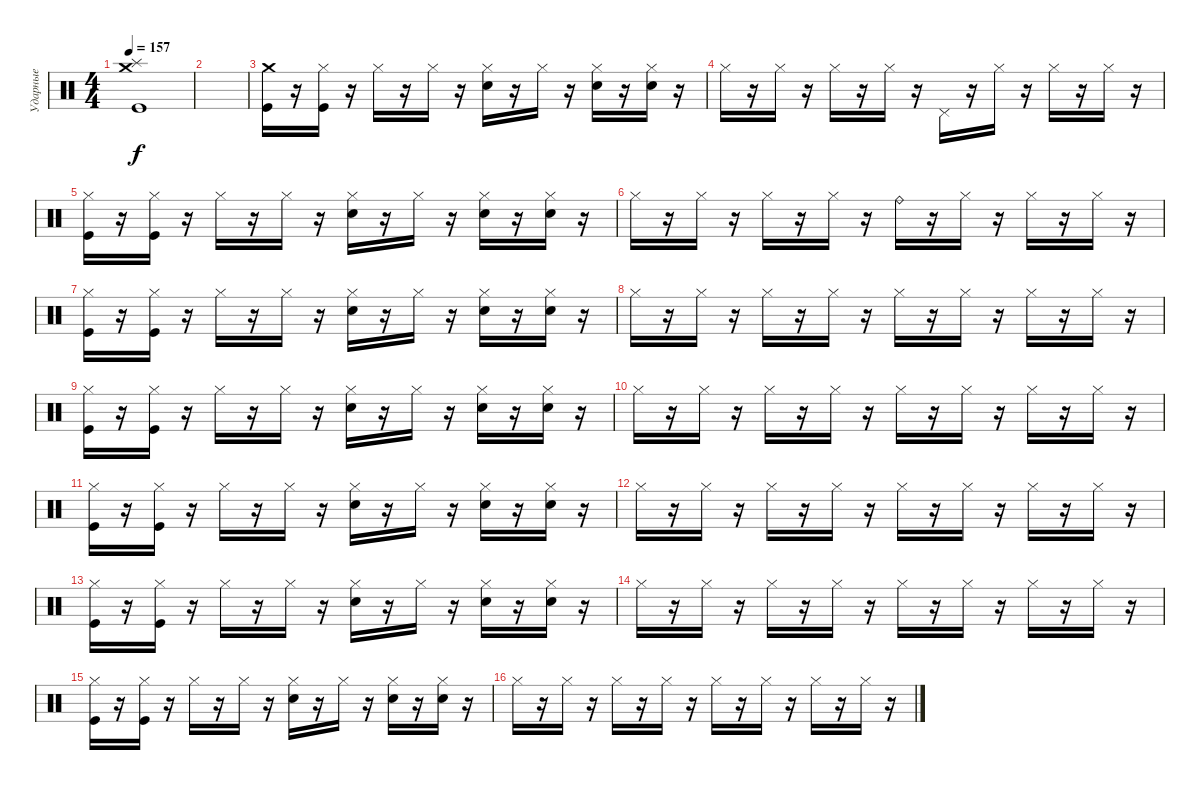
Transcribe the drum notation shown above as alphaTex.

\track ("Ударные" "Ударные") {instrument percussion}
\staff {score}
\articulation defaults
\ts (4 4)
\tempo 157
\clef neutral
\ks c
("Splash (hit)" "Crash medium (hit)" "Kick (hit)").1{dy f} |
|
("Crash medium (hit)" "Kick (hit)").16 r.16 ("Hi-Hat (closed)" "Kick (hit)").16 r.16 "Hi-Hat (closed)".16 r.16 "Hi-Hat (closed)".16 r.16 ("Hi-Hat (closed)" "Electric Snare (hit)").16 r.16 "Hi-Hat (closed)".16 r.16 ("Hi-Hat (closed)" "Electric Snare (hit)").16 r.16 ("Hi-Hat (closed)" "Electric Snare (hit)").16 r.16 |
"Hi-Hat (closed)".16 r.16 "Hi-Hat (closed)".16 r.16 "Hi-Hat (closed)".16 r.16 "Hi-Hat (closed)".16 r.16 "Pedal Hi-Hat (hit)".16 r.16 "Hi-Hat (closed)".16 r.16 "Hi-Hat (closed)".16 r.16 "Hi-Hat (closed)".16 r.16 |
("Hi-Hat (closed)" "Kick (hit)").16 r.16 ("Hi-Hat (closed)" "Kick (hit)").16 r.16 "Hi-Hat (closed)".16 r.16 "Hi-Hat (closed)".16 r.16 ("Hi-Hat (closed)" "Electric Snare (hit)").16 r.16 "Hi-Hat (closed)".16 r.16 ("Hi-Hat (closed)" "Electric Snare (hit)").16 r.16 ("Hi-Hat (closed)" "Electric Snare (hit)").16 r.16 |
"Hi-Hat (closed)".16 r.16 "Hi-Hat (closed)".16 r.16 "Hi-Hat (closed)".16 r.16 "Hi-Hat (closed)".16 r.16 "Ride (bell)".16 r.16 "Hi-Hat (closed)".16 r.16 "Hi-Hat (closed)".16 r.16 "Hi-Hat (closed)".16 r.16 |
("Hi-Hat (closed)" "Kick (hit)").16 r.16 ("Hi-Hat (closed)" "Kick (hit)").16 r.16 "Hi-Hat (closed)".16 r.16 "Hi-Hat (closed)".16 r.16 ("Hi-Hat (closed)" "Electric Snare (hit)").16 r.16 "Hi-Hat (closed)".16 r.16 ("Hi-Hat (closed)" "Electric Snare (hit)").16 r.16 ("Hi-Hat (closed)" "Electric Snare (hit)").16 r.16 |
"Hi-Hat (closed)".16 r.16 "Hi-Hat (closed)".16 r.16 "Hi-Hat (closed)".16 r.16 "Hi-Hat (closed)".16 r.16 "Hi-Hat (closed)".16 r.16 "Hi-Hat (closed)".16 r.16 "Hi-Hat (closed)".16 r.16 "Hi-Hat (closed)".16 r.16 |
("Hi-Hat (closed)" "Kick (hit)").16 r.16 ("Hi-Hat (closed)" "Kick (hit)").16 r.16 "Hi-Hat (closed)".16 r.16 "Hi-Hat (closed)".16 r.16 ("Hi-Hat (closed)" "Electric Snare (hit)").16 r.16 "Hi-Hat (closed)".16 r.16 ("Hi-Hat (closed)" "Electric Snare (hit)").16 r.16 ("Hi-Hat (closed)" "Electric Snare (hit)").16 r.16 |
"Hi-Hat (closed)".16 r.16 "Hi-Hat (closed)".16 r.16 "Hi-Hat (closed)".16 r.16 "Hi-Hat (closed)".16 r.16 "Hi-Hat (closed)".16 r.16 "Hi-Hat (closed)".16 r.16 "Hi-Hat (closed)".16 r.16 "Hi-Hat (closed)".16 r.16 |
("Hi-Hat (closed)" "Kick (hit)").16 r.16 ("Hi-Hat (closed)" "Kick (hit)").16 r.16 "Hi-Hat (closed)".16 r.16 "Hi-Hat (closed)".16 r.16 ("Hi-Hat (closed)" "Electric Snare (hit)").16 r.16 "Hi-Hat (closed)".16 r.16 ("Hi-Hat (closed)" "Electric Snare (hit)").16 r.16 ("Hi-Hat (closed)" "Electric Snare (hit)").16 r.16 |
"Hi-Hat (closed)".16 r.16 "Hi-Hat (closed)".16 r.16 "Hi-Hat (closed)".16 r.16 "Hi-Hat (closed)".16 r.16 "Hi-Hat (closed)".16 r.16 "Hi-Hat (closed)".16 r.16 "Hi-Hat (closed)".16 r.16 "Hi-Hat (closed)".16 r.16 |
("Hi-Hat (closed)" "Kick (hit)").16 r.16 ("Hi-Hat (closed)" "Kick (hit)").16 r.16 "Hi-Hat (closed)".16 r.16 "Hi-Hat (closed)".16 r.16 ("Hi-Hat (closed)" "Electric Snare (hit)").16 r.16 "Hi-Hat (closed)".16 r.16 ("Hi-Hat (closed)" "Electric Snare (hit)").16 r.16 ("Hi-Hat (closed)" "Electric Snare (hit)").16 r.16 |
"Hi-Hat (closed)".16 r.16 "Hi-Hat (closed)".16 r.16 "Hi-Hat (closed)".16 r.16 "Hi-Hat (closed)".16 r.16 "Hi-Hat (closed)".16 r.16 "Hi-Hat (closed)".16 r.16 "Hi-Hat (closed)".16 r.16 "Hi-Hat (closed)".16 r.16 |
("Hi-Hat (closed)" "Kick (hit)").16 r.16 ("Hi-Hat (closed)" "Kick (hit)").16 r.16 "Hi-Hat (closed)".16 r.16 "Hi-Hat (closed)".16 r.16 ("Hi-Hat (closed)" "Electric Snare (hit)").16 r.16 "Hi-Hat (closed)".16 r.16 ("Hi-Hat (closed)" "Electric Snare (hit)").16 r.16 ("Hi-Hat (closed)" "Electric Snare (hit)").16 r.16 |
"Hi-Hat (closed)".16 r.16 "Hi-Hat (closed)".16 r.16 "Hi-Hat (closed)".16 r.16 "Hi-Hat (closed)".16 r.16 "Hi-Hat (closed)".16 r.16 "Hi-Hat (closed)".16 r.16 "Hi-Hat (closed)".16 r.16 "Hi-Hat (closed)".16 r.16
